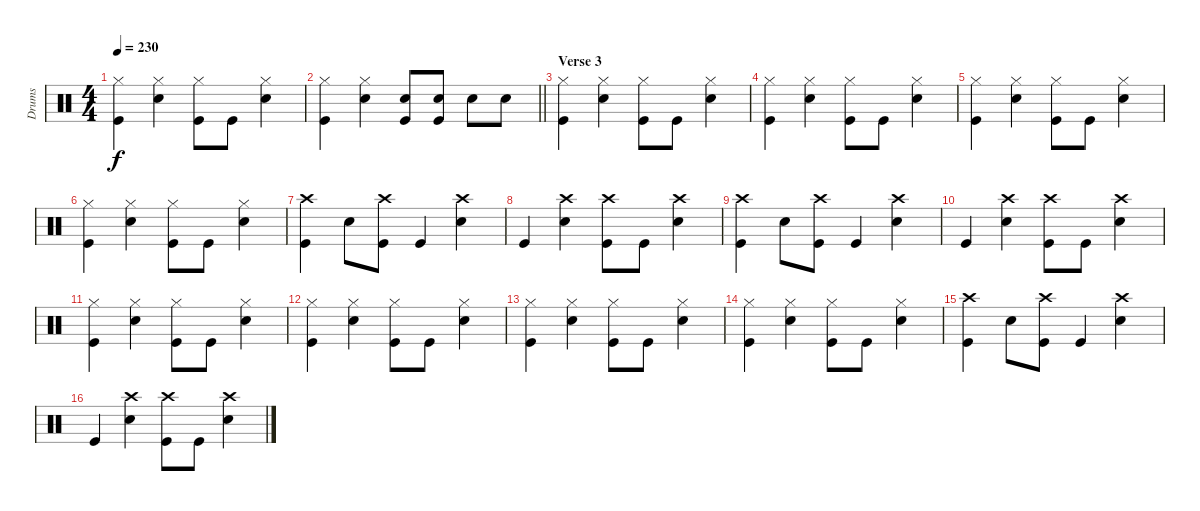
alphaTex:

\track ("Drums" "Drums") {instrument percussion}
\staff {score}
\articulation defaults
\ts (4 4)
\tempo 230
\clef neutral
\ks c
("Hi-Hat (closed)" "Kick (hit)").4{dy f} ("Hi-Hat (closed)" "Snare (hit) 2").4 ("Hi-Hat (closed)" "Kick (hit)").8 "Kick (hit)".8 ("Hi-Hat (closed)" "Snare (hit) 2").4 |
\barLineRight lightlight
("Hi-Hat (closed)" "Kick (hit)").4 ("Hi-Hat (closed)" "Snare (hit) 2").4 ("Snare (hit) 2" "Kick (hit)").8 ("Snare (hit) 2" "Kick (hit)").8 "Snare (hit) 2".8 "Snare (hit) 2".8 |
\section ("" "Verse 3")
("Hi-Hat (closed)" "Kick (hit)").4 ("Hi-Hat (closed)" "Snare (hit) 2").4 ("Hi-Hat (closed)" "Kick (hit)").8 "Kick (hit)".8 ("Hi-Hat (closed)" "Snare (hit) 2").4 |
("Hi-Hat (closed)" "Kick (hit)").4 ("Hi-Hat (closed)" "Snare (hit) 2").4 ("Hi-Hat (closed)" "Kick (hit)").8 "Kick (hit)".8 ("Hi-Hat (closed)" "Snare (hit) 2").4 |
("Hi-Hat (closed)" "Kick (hit)").4 ("Hi-Hat (closed)" "Snare (hit) 2").4 ("Hi-Hat (closed)" "Kick (hit)").8 "Kick (hit)".8 ("Hi-Hat (closed)" "Snare (hit) 2").4 |
("Hi-Hat (closed)" "Kick (hit)").4 ("Hi-Hat (closed)" "Snare (hit) 2").4 ("Hi-Hat (closed)" "Kick (hit)").8 "Kick (hit)".8 ("Hi-Hat (closed)" "Snare (hit) 2").4 |
("Crash high (hit)" "Kick (hit)").4 "Snare (hit) 2".8 ("Crash high (hit)" "Kick (hit)").8 "Kick (hit)".4 ("Crash high (hit)" "Snare (hit) 2").4 |
"Kick (hit)".4 ("Crash high (hit)" "Snare (hit) 2").4 ("Crash high (hit)" "Kick (hit)").8 "Kick (hit)".8 ("Crash high (hit)" "Snare (hit) 2").4 |
("Crash high (hit)" "Kick (hit)").4 "Snare (hit) 2".8 ("Crash high (hit)" "Kick (hit)").8 "Kick (hit)".4 ("Crash high (hit)" "Snare (hit) 2").4 |
"Kick (hit)".4 ("Crash high (hit)" "Snare (hit) 2").4 ("Crash high (hit)" "Kick (hit)").8 "Kick (hit)".8 ("Crash high (hit)" "Snare (hit) 2").4 |
("Hi-Hat (closed)" "Kick (hit)").4 ("Hi-Hat (closed)" "Snare (hit) 2").4 ("Hi-Hat (closed)" "Kick (hit)").8 "Kick (hit)".8 ("Hi-Hat (closed)" "Snare (hit) 2").4 |
("Hi-Hat (closed)" "Kick (hit)").4 ("Hi-Hat (closed)" "Snare (hit) 2").4 ("Hi-Hat (closed)" "Kick (hit)").8 "Kick (hit)".8 ("Hi-Hat (closed)" "Snare (hit) 2").4 |
("Hi-Hat (closed)" "Kick (hit)").4 ("Hi-Hat (closed)" "Snare (hit) 2").4 ("Hi-Hat (closed)" "Kick (hit)").8 "Kick (hit)".8 ("Hi-Hat (closed)" "Snare (hit) 2").4 |
("Hi-Hat (closed)" "Kick (hit)").4 ("Hi-Hat (closed)" "Snare (hit) 2").4 ("Hi-Hat (closed)" "Kick (hit)").8 "Kick (hit)".8 ("Hi-Hat (closed)" "Snare (hit) 2").4 |
("Crash high (hit)" "Kick (hit)").4 "Snare (hit) 2".8 ("Crash high (hit)" "Kick (hit)").8 "Kick (hit)".4 ("Crash high (hit)" "Snare (hit) 2").4 |
"Kick (hit)".4 ("Crash high (hit)" "Snare (hit) 2").4 ("Crash high (hit)" "Kick (hit)").8 "Kick (hit)".8 ("Crash high (hit)" "Snare (hit) 2").4
